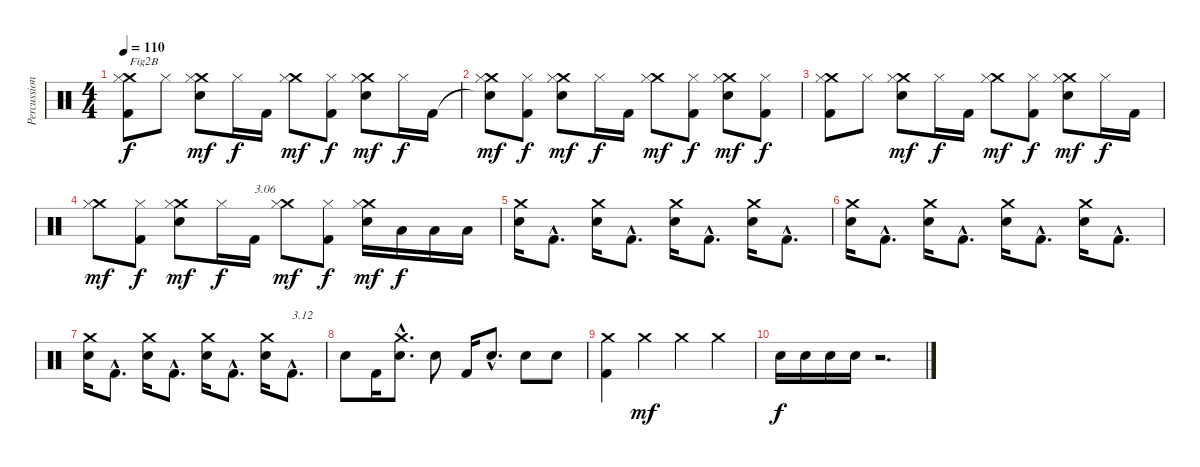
\track ("Percussions" "Percussion") {instrument percussion}
\staff {score}
\articulation defaults
\ts (4 4)
\tempo 110
\clef neutral
\ks c
("Kick (hit) 2" "Crash medium (hit)" "Hi-Hat (closed)").8{txt "Fig2B" dy f} "Hi-Hat (closed)".8 ("Electric Snare (hit)" "Crash medium (hit)" "Hi-Hat (closed)").8{dy mf} "Hi-Hat (closed)".16{dy f} "Kick (hit) 2".16 ("Crash medium (hit)" "Hi-Hat (closed)").8{dy mf} ("Kick (hit) 2" "Hi-Hat (closed)").8{dy f} ("Electric Snare (hit)" "Crash medium (hit)" "Hi-Hat (closed)").8{dy mf} "Hi-Hat (closed)".16{dy f} "Kick (hit) 2".16 |
("Snare (hit)"{t} "Crash medium (hit)" "Hi-Hat (closed)").8{dy mf} ("Kick (hit) 2" "Hi-Hat (closed)").8{dy f} ("Electric Snare (hit)" "Crash medium (hit)" "Hi-Hat (closed)").8{dy mf} "Hi-Hat (closed)".16{dy f} "Kick (hit) 2".16 ("Crash medium (hit)" "Hi-Hat (closed)").8{dy mf} ("Kick (hit) 2" "Hi-Hat (closed)").8{dy f} ("Electric Snare (hit)" "Crash medium (hit)" "Hi-Hat (closed)").8{dy mf} ("Kick (hit) 2" "Hi-Hat (closed)").8{dy f} |
("Kick (hit) 2" "Crash medium (hit)" "Hi-Hat (closed)").8 "Hi-Hat (closed)".8 ("Electric Snare (hit)" "Crash medium (hit)" "Hi-Hat (closed)").8{dy mf} "Hi-Hat (closed)".16{dy f} "Kick (hit) 2".16 ("Crash medium (hit)" "Hi-Hat (closed)").8{dy mf} ("Kick (hit) 2" "Hi-Hat (closed)").8{dy f} ("Electric Snare (hit)" "Crash medium (hit)" "Hi-Hat (closed)").8{dy mf} "Hi-Hat (closed)".16{dy f} "Kick (hit) 2".16 |
("Crash medium (hit)" "Hi-Hat (closed)").8{dy mf} ("Kick (hit) 2" "Hi-Hat (closed)").8{dy f} ("Electric Snare (hit)" "Crash medium (hit)" "Hi-Hat (closed)").8{dy mf} "Hi-Hat (closed)".16{dy f} "Kick (hit) 2".16{txt "3.06"} ("Crash medium (hit)" "Hi-Hat (closed)").8{dy mf} ("Kick (hit) 2" "Hi-Hat (closed)").8{dy f} ("Electric Snare (hit)" "Crash medium (hit)" "Hi-Hat (closed)").16{dy mf} "Low Floor Tom (hit)".16{dy f} "Low Floor Tom (hit)".16 "Low Floor Tom (hit)".16 |
("Electric Snare (hit)" "Crash medium (hit)").16 "Kick (hit) 2"{hac}.8{d} ("Electric Snare (hit)" "Crash medium (hit)").16 "Kick (hit) 2"{hac}.8{d} ("Electric Snare (hit)" "Crash medium (hit)").16 "Kick (hit) 2"{hac}.8{d} ("Electric Snare (hit)" "Crash medium (hit)").16 "Kick (hit) 2"{hac}.8{d} |
("Electric Snare (hit)" "Crash medium (hit)").16 "Kick (hit) 2"{hac}.8{d} ("Electric Snare (hit)" "Crash medium (hit)").16 "Kick (hit) 2"{hac}.8{d} ("Electric Snare (hit)" "Crash medium (hit)").16 "Kick (hit) 2"{hac}.8{d} ("Electric Snare (hit)" "Crash medium (hit)").16 "Kick (hit) 2"{hac}.8{d} |
("Electric Snare (hit)" "Crash medium (hit)").16 "Kick (hit) 2"{hac}.8{d} ("Electric Snare (hit)" "Crash medium (hit)").16 "Kick (hit) 2"{hac}.8{d} ("Electric Snare (hit)" "Crash medium (hit)").16 "Kick (hit) 2"{hac}.8{d} ("Electric Snare (hit)" "Crash medium (hit)").16 "Kick (hit) 2"{hac}.8{d txt "3.12"} |
"Electric Snare (hit)".8 "Kick (hit) 2".16 ("Electric Snare (hit)"{hac} "Crash medium (hit)"{hac}).8{d} "Electric Snare (hit)".8 "Kick (hit) 2".16 "Electric Snare (hit)"{hac}.8{d} "Electric Snare (hit)".8 "Electric Snare (hit)".8 |
("Kick (hit) 2" "Crash medium (hit)").4 "Crash medium (hit)".4{dy mf} "Crash medium (hit)".4 "Crash medium (hit)".4 |
"Electric Snare (hit)".16{dy f} "Electric Snare (hit)".16 "Electric Snare (hit)".16 "Electric Snare (hit)".16 r.2{d}
